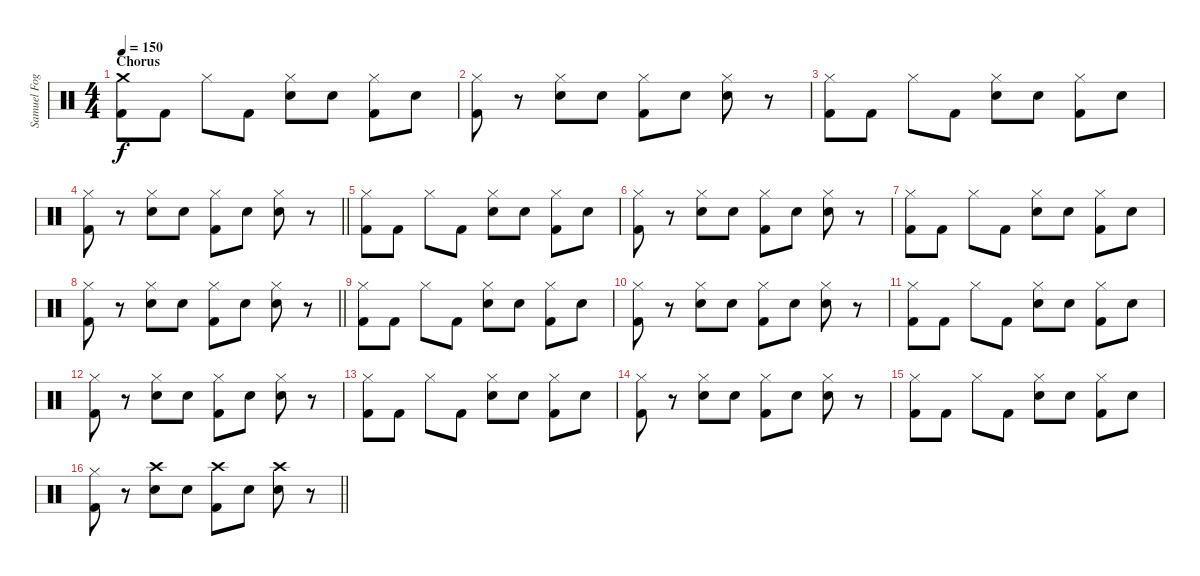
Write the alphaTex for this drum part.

\track ("Samuel Fogarino" "Samuel Fog") {instrument percussion}
\staff {score}
\articulation defaults
\ts (4 4)
\section ("" "Chorus")
\tempo 150
\clef neutral
\ks c
("Crash medium (hit)" "Kick (hit) 2").8{dy f} "Kick (hit) 2".8 "Hi-Hat (closed)".8 "Kick (hit) 2".8 ("Hi-Hat (closed)" "Electric Snare (hit)").8 "Electric Snare (hit)".8 ("Hi-Hat (closed)" "Kick (hit) 2").8 "Electric Snare (hit)".8 |
("Hi-Hat (closed)" "Kick (hit) 2").8 r.8 ("Hi-Hat (closed)" "Electric Snare (hit)").8 "Electric Snare (hit)".8 ("Hi-Hat (closed)" "Kick (hit) 2").8 "Electric Snare (hit)".8 ("Hi-Hat (closed)" "Electric Snare (hit)").8 r.8 |
("Hi-Hat (closed)" "Kick (hit) 2").8 "Kick (hit) 2".8 "Hi-Hat (closed)".8 "Kick (hit) 2".8 ("Hi-Hat (closed)" "Electric Snare (hit)").8 "Electric Snare (hit)".8 ("Hi-Hat (closed)" "Kick (hit) 2").8 "Electric Snare (hit)".8 |
\barLineRight lightlight
("Hi-Hat (closed)" "Kick (hit) 2").8 r.8 ("Hi-Hat (closed)" "Electric Snare (hit)").8 "Electric Snare (hit)".8 ("Hi-Hat (closed)" "Kick (hit) 2").8 "Electric Snare (hit)".8 ("Hi-Hat (closed)" "Electric Snare (hit)").8 r.8 |
("Hi-Hat (closed)" "Kick (hit) 2").8 "Kick (hit) 2".8 "Hi-Hat (closed)".8 "Kick (hit) 2".8 ("Hi-Hat (closed)" "Electric Snare (hit)").8 "Electric Snare (hit)".8 ("Hi-Hat (closed)" "Kick (hit) 2").8 "Electric Snare (hit)".8 |
("Hi-Hat (closed)" "Kick (hit) 2").8 r.8 ("Hi-Hat (closed)" "Electric Snare (hit)").8 "Electric Snare (hit)".8 ("Hi-Hat (closed)" "Kick (hit) 2").8 "Electric Snare (hit)".8 ("Hi-Hat (closed)" "Electric Snare (hit)").8 r.8 |
("Hi-Hat (closed)" "Kick (hit) 2").8 "Kick (hit) 2".8 "Hi-Hat (closed)".8 "Kick (hit) 2".8 ("Hi-Hat (closed)" "Electric Snare (hit)").8 "Electric Snare (hit)".8 ("Hi-Hat (closed)" "Kick (hit) 2").8 "Electric Snare (hit)".8 |
\barLineRight lightlight
("Hi-Hat (closed)" "Kick (hit) 2").8 r.8 ("Hi-Hat (closed)" "Electric Snare (hit)").8 "Electric Snare (hit)".8 ("Hi-Hat (closed)" "Kick (hit) 2").8 "Electric Snare (hit)".8 ("Hi-Hat (closed)" "Electric Snare (hit)").8 r.8 |
("Hi-Hat (closed)" "Kick (hit) 2").8 "Kick (hit) 2".8 "Hi-Hat (closed)".8 "Kick (hit) 2".8 ("Hi-Hat (closed)" "Electric Snare (hit)").8 "Electric Snare (hit)".8 ("Hi-Hat (closed)" "Kick (hit) 2").8 "Electric Snare (hit)".8 |
("Hi-Hat (closed)" "Kick (hit) 2").8 r.8 ("Hi-Hat (closed)" "Electric Snare (hit)").8 "Electric Snare (hit)".8 ("Hi-Hat (closed)" "Kick (hit) 2").8 "Electric Snare (hit)".8 ("Hi-Hat (closed)" "Electric Snare (hit)").8 r.8 |
("Hi-Hat (closed)" "Kick (hit) 2").8 "Kick (hit) 2".8 "Hi-Hat (closed)".8 "Kick (hit) 2".8 ("Hi-Hat (closed)" "Electric Snare (hit)").8 "Electric Snare (hit)".8 ("Hi-Hat (closed)" "Kick (hit) 2").8 "Electric Snare (hit)".8 |
("Hi-Hat (closed)" "Kick (hit) 2").8 r.8 ("Hi-Hat (closed)" "Electric Snare (hit)").8 "Electric Snare (hit)".8 ("Hi-Hat (closed)" "Kick (hit) 2").8 "Electric Snare (hit)".8 ("Hi-Hat (closed)" "Electric Snare (hit)").8 r.8 |
("Hi-Hat (closed)" "Kick (hit) 2").8 "Kick (hit) 2".8 "Hi-Hat (closed)".8 "Kick (hit) 2".8 ("Hi-Hat (closed)" "Electric Snare (hit)").8 "Electric Snare (hit)".8 ("Hi-Hat (closed)" "Kick (hit) 2").8 "Electric Snare (hit)".8 |
("Hi-Hat (closed)" "Kick (hit) 2").8 r.8 ("Hi-Hat (closed)" "Electric Snare (hit)").8 "Electric Snare (hit)".8 ("Hi-Hat (closed)" "Kick (hit) 2").8 "Electric Snare (hit)".8 ("Hi-Hat (closed)" "Electric Snare (hit)").8 r.8 |
("Hi-Hat (closed)" "Kick (hit) 2").8 "Kick (hit) 2".8 "Hi-Hat (closed)".8 "Kick (hit) 2".8 ("Hi-Hat (closed)" "Electric Snare (hit)").8 "Electric Snare (hit)".8 ("Hi-Hat (closed)" "Kick (hit) 2").8 "Electric Snare (hit)".8 |
\barLineRight lightlight
("Hi-Hat (closed)" "Kick (hit) 2").8 r.8 ("Crash high (hit)" "Electric Snare (hit)").8 "Electric Snare (hit)".8 ("Crash high (hit)" "Kick (hit) 2").8 "Electric Snare (hit)".8 ("Crash high (hit)" "Electric Snare (hit)").8 r.8
